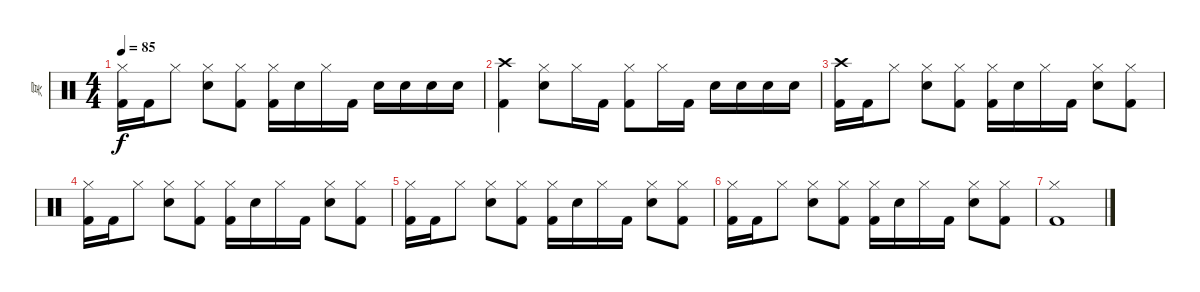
\track ("冥" "冥") {instrument percussion}
\staff {score}
\articulation defaults
\ts (4 4)
\tempo 85
\clef neutral
\ks c
("Hi-Hat (closed)" "Kick (hit) 2").16{dy f} "Kick (hit) 2".16 "Hi-Hat (closed)".8 ("Hi-Hat (closed)" "Snare (hit) 2").8 ("Hi-Hat (closed)" "Kick (hit) 2").8 ("Hi-Hat (closed)" "Kick (hit) 2").16 "Snare (hit) 2".16 "Hi-Hat (closed)".16 "Kick (hit) 2".16 "Snare (hit) 2".16 "Snare (hit) 2".16 "Snare (hit) 2".16 "Snare (hit) 2".16 |
("Crash high (hit)" "Kick (hit) 2").4 ("Hi-Hat (closed)" "Snare (hit) 2").8 "Hi-Hat (closed)".16 "Kick (hit) 2".16 ("Hi-Hat (closed)" "Kick (hit) 2").8 "Hi-Hat (closed)".16 "Kick (hit) 2".16 "Snare (hit) 2".16 "Snare (hit) 2".16 "Snare (hit) 2".16 "Snare (hit) 2".16 |
("Crash high (hit)" "Kick (hit) 2").16 "Kick (hit) 2".16 "Hi-Hat (closed)".8 ("Hi-Hat (closed)" "Snare (hit) 2").8 ("Hi-Hat (closed)" "Kick (hit) 2").8 ("Hi-Hat (closed)" "Kick (hit) 2").16 "Snare (hit) 2".16 "Hi-Hat (closed)".16 "Kick (hit) 2".16 ("Hi-Hat (closed)" "Snare (hit) 2").8 ("Hi-Hat (closed)" "Kick (hit) 2").8 |
("Hi-Hat (closed)" "Kick (hit) 2").16 "Kick (hit) 2".16 "Hi-Hat (closed)".8 ("Hi-Hat (closed)" "Snare (hit) 2").8 ("Hi-Hat (closed)" "Kick (hit) 2").8 ("Hi-Hat (closed)" "Kick (hit) 2").16 "Snare (hit) 2".16 "Hi-Hat (closed)".16 "Kick (hit) 2".16 ("Hi-Hat (closed)" "Snare (hit) 2").8 ("Hi-Hat (closed)" "Kick (hit) 2").8 |
("Hi-Hat (closed)" "Kick (hit) 2").16 "Kick (hit) 2".16 "Hi-Hat (closed)".8 ("Hi-Hat (closed)" "Snare (hit) 2").8 ("Hi-Hat (closed)" "Kick (hit) 2").8 ("Hi-Hat (closed)" "Kick (hit) 2").16 "Snare (hit) 2".16 "Hi-Hat (closed)".16 "Kick (hit) 2".16 ("Hi-Hat (closed)" "Snare (hit) 2").8 ("Hi-Hat (closed)" "Kick (hit) 2").8 |
("Hi-Hat (closed)" "Kick (hit) 2").16 "Kick (hit) 2".16 "Hi-Hat (closed)".8 ("Hi-Hat (closed)" "Snare (hit) 2").8 ("Hi-Hat (closed)" "Kick (hit) 2").8 ("Hi-Hat (closed)" "Kick (hit) 2").16 "Snare (hit) 2".16 "Hi-Hat (closed)".16 "Kick (hit) 2".16 ("Hi-Hat (closed)" "Snare (hit) 2").8 ("Hi-Hat (closed)" "Kick (hit) 2").8 |
("Hi-Hat (closed)" "Kick (hit) 2").1
